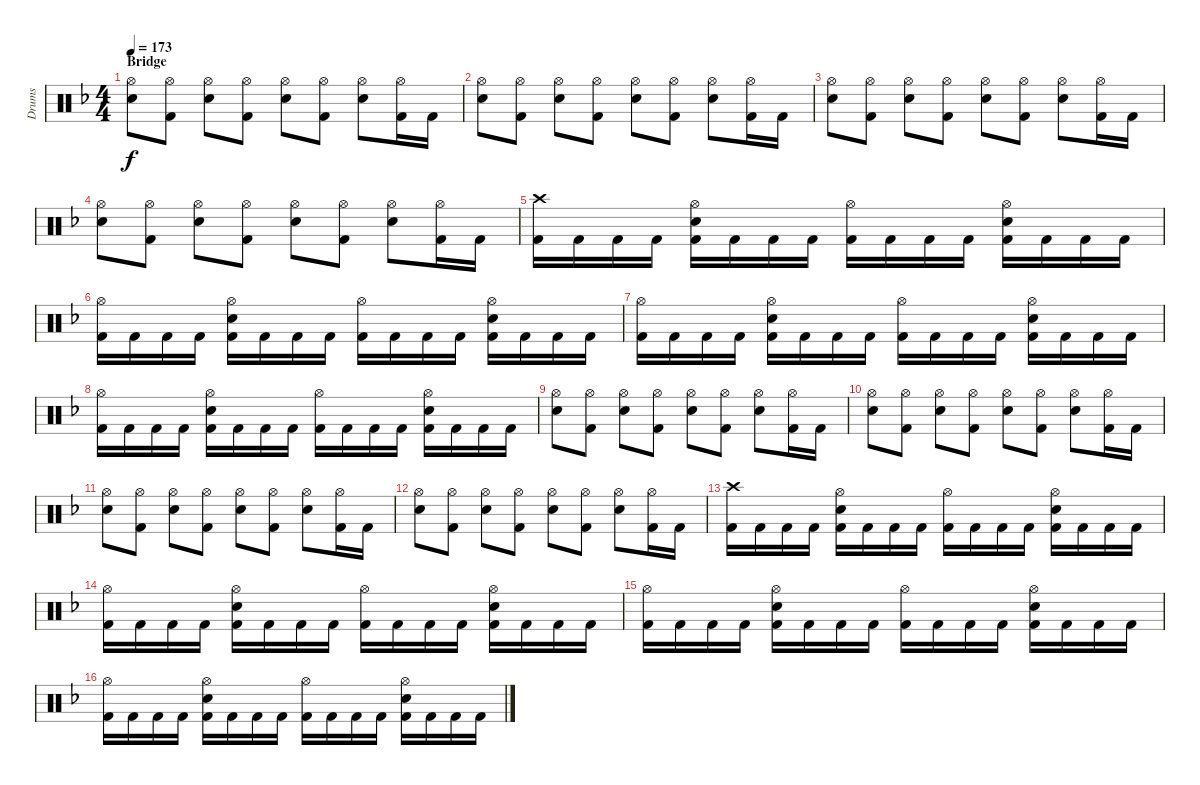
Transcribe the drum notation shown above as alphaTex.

\track ("Drums" "Drums") {instrument percussion}
\staff {score}
\articulation defaults
\ts (4 4)
\section ("" "Bridge")
\tempo 173
\clef neutral
\ks dminor
("Hi-Hat (open)" "Snare (hit) 2").8{dy f} ("Hi-Hat (open)" "Kick (hit) 2").8 ("Hi-Hat (open)" "Snare (hit) 2").8 ("Hi-Hat (open)" "Kick (hit) 2").8 ("Hi-Hat (open)" "Snare (hit) 2").8 ("Hi-Hat (open)" "Kick (hit) 2").8 ("Hi-Hat (open)" "Snare (hit) 2").8 ("Hi-Hat (open)" "Kick (hit) 2").16 "Kick (hit) 2".16 |
("Hi-Hat (open)" "Snare (hit) 2").8 ("Hi-Hat (open)" "Kick (hit) 2").8 ("Hi-Hat (open)" "Snare (hit) 2").8 ("Hi-Hat (open)" "Kick (hit) 2").8 ("Hi-Hat (open)" "Snare (hit) 2").8 ("Hi-Hat (open)" "Kick (hit) 2").8 ("Hi-Hat (open)" "Snare (hit) 2").8 ("Hi-Hat (open)" "Kick (hit) 2").16 "Kick (hit) 2".16 |
("Hi-Hat (open)" "Snare (hit) 2").8 ("Hi-Hat (open)" "Kick (hit) 2").8 ("Hi-Hat (open)" "Snare (hit) 2").8 ("Hi-Hat (open)" "Kick (hit) 2").8 ("Hi-Hat (open)" "Snare (hit) 2").8 ("Hi-Hat (open)" "Kick (hit) 2").8 ("Hi-Hat (open)" "Snare (hit) 2").8 ("Hi-Hat (open)" "Kick (hit) 2").16 "Kick (hit) 2".16 |
("Hi-Hat (open)" "Snare (hit) 2").8 ("Hi-Hat (open)" "Kick (hit) 2").8 ("Hi-Hat (open)" "Snare (hit) 2").8 ("Hi-Hat (open)" "Kick (hit) 2").8 ("Hi-Hat (open)" "Snare (hit) 2").8 ("Hi-Hat (open)" "Kick (hit) 2").8 ("Hi-Hat (open)" "Snare (hit) 2").8 ("Hi-Hat (open)" "Kick (hit) 2").16 "Kick (hit) 2".16 |
("Crash high (hit)" "Kick (hit) 2").16 "Kick (hit) 2".16 "Kick (hit) 2".16 "Kick (hit) 2".16 ("Hi-Hat (open)" "Snare (hit) 2" "Kick (hit) 2").16 "Kick (hit) 2".16 "Kick (hit) 2".16 "Kick (hit) 2".16 ("Hi-Hat (open)" "Kick (hit) 2").16 "Kick (hit) 2".16 "Kick (hit) 2".16 "Kick (hit) 2".16 ("Hi-Hat (open)" "Snare (hit) 2" "Kick (hit) 2").16 "Kick (hit) 2".16 "Kick (hit) 2".16 "Kick (hit) 2".16 |
("Hi-Hat (open)" "Kick (hit) 2").16 "Kick (hit) 2".16 "Kick (hit) 2".16 "Kick (hit) 2".16 ("Hi-Hat (open)" "Snare (hit) 2" "Kick (hit) 2").16 "Kick (hit) 2".16 "Kick (hit) 2".16 "Kick (hit) 2".16 ("Hi-Hat (open)" "Kick (hit) 2").16 "Kick (hit) 2".16 "Kick (hit) 2".16 "Kick (hit) 2".16 ("Hi-Hat (open)" "Snare (hit) 2" "Kick (hit) 2").16 "Kick (hit) 2".16 "Kick (hit) 2".16 "Kick (hit) 2".16 |
("Hi-Hat (open)" "Kick (hit) 2").16 "Kick (hit) 2".16 "Kick (hit) 2".16 "Kick (hit) 2".16 ("Hi-Hat (open)" "Snare (hit) 2" "Kick (hit) 2").16 "Kick (hit) 2".16 "Kick (hit) 2".16 "Kick (hit) 2".16 ("Hi-Hat (open)" "Kick (hit) 2").16 "Kick (hit) 2".16 "Kick (hit) 2".16 "Kick (hit) 2".16 ("Hi-Hat (open)" "Snare (hit) 2" "Kick (hit) 2").16 "Kick (hit) 2".16 "Kick (hit) 2".16 "Kick (hit) 2".16 |
("Hi-Hat (open)" "Kick (hit) 2").16 "Kick (hit) 2".16 "Kick (hit) 2".16 "Kick (hit) 2".16 ("Hi-Hat (open)" "Snare (hit) 2" "Kick (hit) 2").16 "Kick (hit) 2".16 "Kick (hit) 2".16 "Kick (hit) 2".16 ("Hi-Hat (open)" "Kick (hit) 2").16 "Kick (hit) 2".16 "Kick (hit) 2".16 "Kick (hit) 2".16 ("Hi-Hat (open)" "Snare (hit) 2" "Kick (hit) 2").16 "Kick (hit) 2".16 "Kick (hit) 2".16 "Kick (hit) 2".16 |
("Hi-Hat (open)" "Snare (hit) 2").8 ("Hi-Hat (open)" "Kick (hit) 2").8 ("Hi-Hat (open)" "Snare (hit) 2").8 ("Hi-Hat (open)" "Kick (hit) 2").8 ("Hi-Hat (open)" "Snare (hit) 2").8 ("Hi-Hat (open)" "Kick (hit) 2").8 ("Hi-Hat (open)" "Snare (hit) 2").8 ("Hi-Hat (open)" "Kick (hit) 2").16 "Kick (hit) 2".16 |
("Hi-Hat (open)" "Snare (hit) 2").8 ("Hi-Hat (open)" "Kick (hit) 2").8 ("Hi-Hat (open)" "Snare (hit) 2").8 ("Hi-Hat (open)" "Kick (hit) 2").8 ("Hi-Hat (open)" "Snare (hit) 2").8 ("Hi-Hat (open)" "Kick (hit) 2").8 ("Hi-Hat (open)" "Snare (hit) 2").8 ("Hi-Hat (open)" "Kick (hit) 2").16 "Kick (hit) 2".16 |
("Hi-Hat (open)" "Snare (hit) 2").8 ("Hi-Hat (open)" "Kick (hit) 2").8 ("Hi-Hat (open)" "Snare (hit) 2").8 ("Hi-Hat (open)" "Kick (hit) 2").8 ("Hi-Hat (open)" "Snare (hit) 2").8 ("Hi-Hat (open)" "Kick (hit) 2").8 ("Hi-Hat (open)" "Snare (hit) 2").8 ("Hi-Hat (open)" "Kick (hit) 2").16 "Kick (hit) 2".16 |
("Hi-Hat (open)" "Snare (hit) 2").8 ("Hi-Hat (open)" "Kick (hit) 2").8 ("Hi-Hat (open)" "Snare (hit) 2").8 ("Hi-Hat (open)" "Kick (hit) 2").8 ("Hi-Hat (open)" "Snare (hit) 2").8 ("Hi-Hat (open)" "Kick (hit) 2").8 ("Hi-Hat (open)" "Snare (hit) 2").8 ("Hi-Hat (open)" "Kick (hit) 2").16 "Kick (hit) 2".16 |
("Crash high (hit)" "Kick (hit) 2").16 "Kick (hit) 2".16 "Kick (hit) 2".16 "Kick (hit) 2".16 ("Hi-Hat (open)" "Snare (hit) 2" "Kick (hit) 2").16 "Kick (hit) 2".16 "Kick (hit) 2".16 "Kick (hit) 2".16 ("Hi-Hat (open)" "Kick (hit) 2").16 "Kick (hit) 2".16 "Kick (hit) 2".16 "Kick (hit) 2".16 ("Hi-Hat (open)" "Snare (hit) 2" "Kick (hit) 2").16 "Kick (hit) 2".16 "Kick (hit) 2".16 "Kick (hit) 2".16 |
("Hi-Hat (open)" "Kick (hit) 2").16 "Kick (hit) 2".16 "Kick (hit) 2".16 "Kick (hit) 2".16 ("Hi-Hat (open)" "Snare (hit) 2" "Kick (hit) 2").16 "Kick (hit) 2".16 "Kick (hit) 2".16 "Kick (hit) 2".16 ("Hi-Hat (open)" "Kick (hit) 2").16 "Kick (hit) 2".16 "Kick (hit) 2".16 "Kick (hit) 2".16 ("Hi-Hat (open)" "Snare (hit) 2" "Kick (hit) 2").16 "Kick (hit) 2".16 "Kick (hit) 2".16 "Kick (hit) 2".16 |
("Hi-Hat (open)" "Kick (hit) 2").16 "Kick (hit) 2".16 "Kick (hit) 2".16 "Kick (hit) 2".16 ("Hi-Hat (open)" "Snare (hit) 2" "Kick (hit) 2").16 "Kick (hit) 2".16 "Kick (hit) 2".16 "Kick (hit) 2".16 ("Hi-Hat (open)" "Kick (hit) 2").16 "Kick (hit) 2".16 "Kick (hit) 2".16 "Kick (hit) 2".16 ("Hi-Hat (open)" "Snare (hit) 2" "Kick (hit) 2").16 "Kick (hit) 2".16 "Kick (hit) 2".16 "Kick (hit) 2".16 |
("Hi-Hat (open)" "Kick (hit) 2").16 "Kick (hit) 2".16 "Kick (hit) 2".16 "Kick (hit) 2".16 ("Hi-Hat (open)" "Snare (hit) 2" "Kick (hit) 2").16 "Kick (hit) 2".16 "Kick (hit) 2".16 "Kick (hit) 2".16 ("Hi-Hat (open)" "Kick (hit) 2").16 "Kick (hit) 2".16 "Kick (hit) 2".16 "Kick (hit) 2".16 ("Hi-Hat (open)" "Snare (hit) 2" "Kick (hit) 2").16 "Kick (hit) 2".16 "Kick (hit) 2".16 "Kick (hit) 2".16
